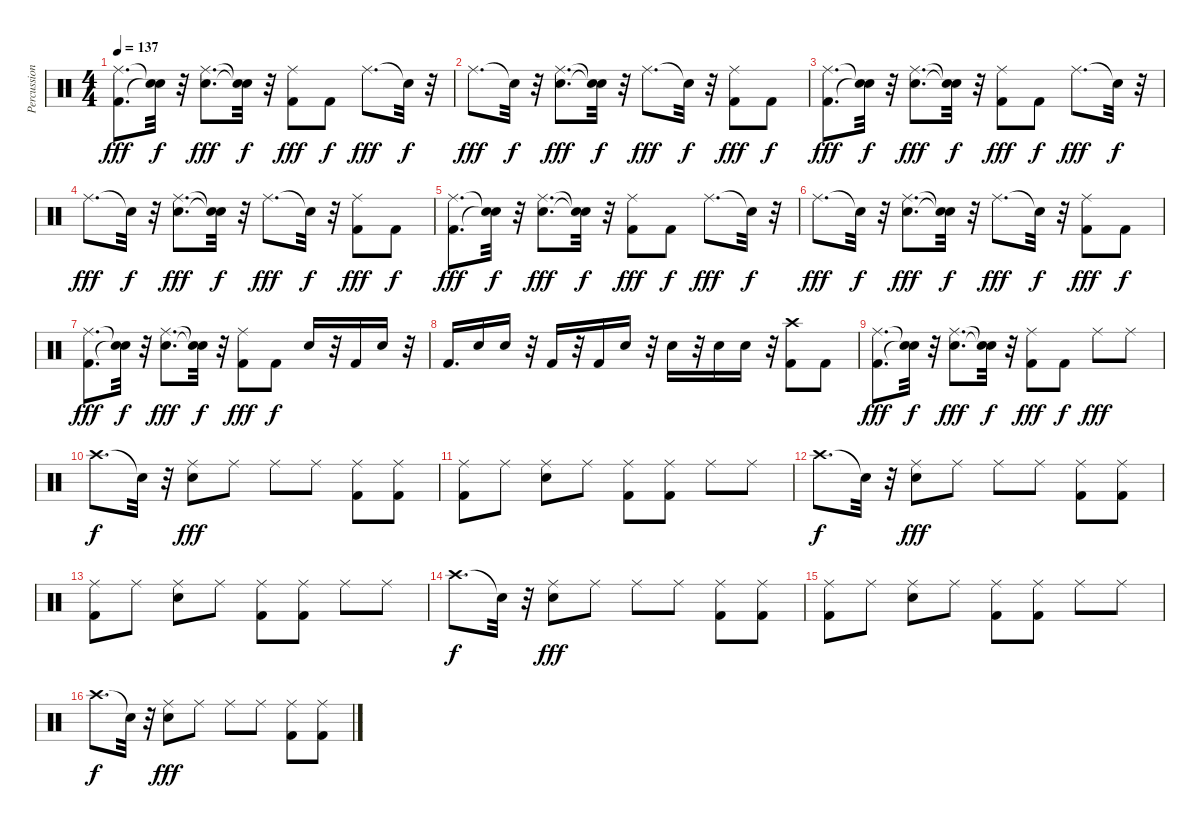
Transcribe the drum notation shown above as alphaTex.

\track ("Percussion" "Percussion") {instrument percussion}
\staff {score}
\articulation defaults
\ts (4 4)
\tempo 137
\clef neutral
\ks c
("Ride (middle)" "Kick (hit) 2").8{d dy fff} ("Snare (hit)"{t} "Snare (hit)"{t}).32{dy f} r.32 ("Ride (middle)" "Snare (hit) 2").8{d dy fff} ("Snare (hit)"{t} "Snare (hit)"{t}).32{dy f} r.32 ("Ride (middle)" "Kick (hit) 2").8{dy fff} "Kick (hit) 2".8{dy f} "Ride (middle)".8{d dy fff} "Snare (hit)"{t}.32{dy f} r.32 |
"Ride (middle)".8{d dy fff} "Snare (hit)"{t}.32{dy f} r.32 ("Ride (middle)" "Snare (hit) 2").8{d dy fff} ("Snare (hit)"{t} "Snare (hit)"{t}).32{dy f} r.32 "Ride (middle)".8{d dy fff} "Snare (hit)"{t}.32{dy f} r.32 ("Ride (middle)" "Kick (hit) 2").8{dy fff} "Kick (hit) 2".8{dy f} |
("Ride (middle)" "Kick (hit) 2").8{d dy fff} ("Snare (hit)"{t} "Snare (hit)"{t}).32{dy f} r.32 ("Ride (middle)" "Snare (hit) 2").8{d dy fff} ("Snare (hit)"{t} "Snare (hit)"{t}).32{dy f} r.32 ("Ride (middle)" "Kick (hit) 2").8{dy fff} "Kick (hit) 2".8{dy f} "Ride (middle)".8{d dy fff} "Snare (hit)"{t}.32{dy f} r.32 |
"Ride (middle)".8{d dy fff} "Snare (hit)"{t}.32{dy f} r.32 ("Ride (middle)" "Snare (hit) 2").8{d dy fff} ("Snare (hit)"{t} "Snare (hit)"{t}).32{dy f} r.32 "Ride (middle)".8{d dy fff} "Snare (hit)"{t}.32{dy f} r.32 ("Ride (middle)" "Kick (hit) 2").8{dy fff} "Kick (hit) 2".8{dy f} |
("Ride (middle)" "Kick (hit) 2").8{d dy fff} ("Snare (hit)"{t} "Snare (hit)"{t}).32{dy f} r.32 ("Ride (middle)" "Snare (hit) 2").8{d dy fff} ("Snare (hit)"{t} "Snare (hit)"{t}).32{dy f} r.32 ("Ride (middle)" "Kick (hit) 2").8{dy fff} "Kick (hit) 2".8{dy f} "Ride (middle)".8{d dy fff} "Snare (hit)"{t}.32{dy f} r.32 |
"Ride (middle)".8{d dy fff} "Snare (hit)"{t}.32{dy f} r.32 ("Ride (middle)" "Snare (hit) 2").8{d dy fff} ("Snare (hit)"{t} "Snare (hit)"{t}).32{dy f} r.32 "Ride (middle)".8{d dy fff} "Snare (hit)"{t}.32{dy f} r.32 ("Ride (middle)" "Kick (hit) 2").8{dy fff} "Kick (hit) 2".8{dy f} |
("Ride (middle)" "Kick (hit) 2").8{d dy fff} ("Snare (hit)"{t} "Snare (hit)"{t}).32{dy f} r.32 ("Ride (middle)" "Snare (hit) 2").8{d dy fff} ("Snare (hit)"{t} "Snare (hit)"{t}).32{dy f} r.32 ("Ride (middle)" "Kick (hit) 2").8{dy fff} "Kick (hit) 2".8{dy f} "Snare (hit) 2".16 r.32 "Kick (hit) 2".16 "Snare (hit) 2".16 r.32 |
"Kick (hit) 2".16{d} "Snare (hit) 2".16 "Snare (hit) 2".16 r.32 "Kick (hit) 2".16 r.32 "Kick (hit) 2".16 "Snare (hit) 2".16 r.32 "Snare (hit) 2".16 r.32 "Snare (hit) 2".16 "Snare (hit) 2".16 r.32 ("Crash high (hit)" "Kick (hit) 2").8 "Kick (hit) 2".8 |
("Ride (middle)" "Kick (hit) 2").8{d dy fff} ("Snare (hit)"{t} "Snare (hit)"{t}).32{dy f} r.32 ("Ride (middle)" "Snare (hit) 2").8{d dy fff} ("Snare (hit)"{t} "Snare (hit)"{t}).32{dy f} r.32 ("Ride (middle)" "Kick (hit) 2").8{dy fff} "Kick (hit) 2".8{dy f} "Ride (middle)".8{dy fff} "Ride (middle)".8 |
"Crash high (hit)".8{d dy f} "Snare (hit)"{t}.32 r.32 ("Ride (middle)" "Snare (hit) 2").8{dy fff} "Ride (middle)".8 "Ride (middle)".8 "Ride (middle)".8 ("Kick (hit) 2" "Ride (middle)").8 ("Kick (hit) 2" "Ride (middle)").8 |
("Kick (hit) 2" "Ride (middle)").8 "Ride (middle)".8 ("Snare (hit) 2" "Ride (middle)").8 "Ride (middle)".8 ("Kick (hit) 2" "Ride (middle)").8 ("Kick (hit) 2" "Ride (middle)").8 "Ride (middle)".8 "Ride (middle)".8 |
"Crash high (hit)".8{d dy f} "Snare (hit)"{t}.32 r.32 ("Ride (middle)" "Snare (hit) 2").8{dy fff} "Ride (middle)".8 "Ride (middle)".8 "Ride (middle)".8 ("Kick (hit) 2" "Ride (middle)").8 ("Kick (hit) 2" "Ride (middle)").8 |
("Kick (hit) 2" "Ride (middle)").8 "Ride (middle)".8 ("Snare (hit) 2" "Ride (middle)").8 "Ride (middle)".8 ("Kick (hit) 2" "Ride (middle)").8 ("Kick (hit) 2" "Ride (middle)").8 "Ride (middle)".8 "Ride (middle)".8 |
"Crash high (hit)".8{d dy f} "Snare (hit)"{t}.32 r.32 ("Ride (middle)" "Snare (hit) 2").8{dy fff} "Ride (middle)".8 "Ride (middle)".8 "Ride (middle)".8 ("Kick (hit) 2" "Ride (middle)").8 ("Kick (hit) 2" "Ride (middle)").8 |
("Kick (hit) 2" "Ride (middle)").8 "Ride (middle)".8 ("Snare (hit) 2" "Ride (middle)").8 "Ride (middle)".8 ("Kick (hit) 2" "Ride (middle)").8 ("Kick (hit) 2" "Ride (middle)").8 "Ride (middle)".8 "Ride (middle)".8 |
"Crash high (hit)".8{d dy f} "Snare (hit)"{t}.32 r.32 ("Ride (middle)" "Snare (hit) 2").8{dy fff} "Ride (middle)".8 "Ride (middle)".8 "Ride (middle)".8 ("Kick (hit) 2" "Ride (middle)").8 ("Kick (hit) 2" "Ride (middle)").8
